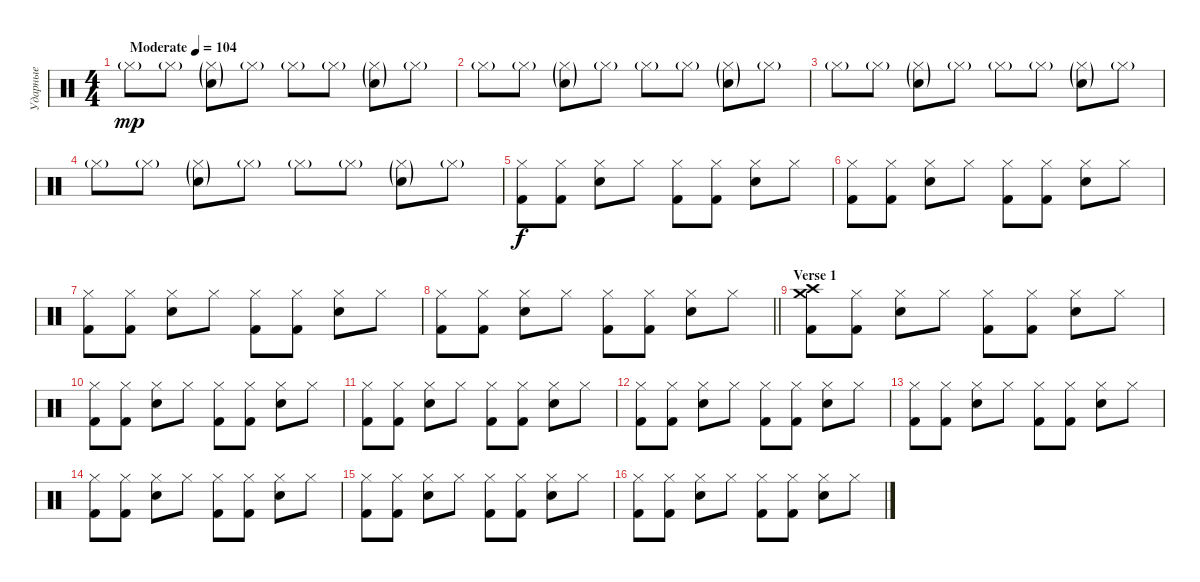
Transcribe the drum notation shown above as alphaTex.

\track ("Ударные" "Ударные") {instrument percussion}
\staff {score}
\articulation defaults
\ts (4 4)
\tempo (104 "Moderate")
\clef neutral
\ks c "Hi-Hat (closed)"{g}.8{dy mp} "Hi-Hat (closed)"{g}.8
("Hi-Hat (closed)"{g} "Electric Snare (hit)"{g}).8 "Hi-Hat (closed)"{g}.8 "Hi-Hat (closed)"{g}.8 "Hi-Hat (closed)"{g}.8 ("Hi-Hat (closed)"{g} "Electric Snare (hit)"{g}).8 "Hi-Hat (closed)"{g}.8 |
"Hi-Hat (closed)"{g}.8 "Hi-Hat (closed)"{g}.8 ("Hi-Hat (closed)"{g} "Electric Snare (hit)"{g}).8 "Hi-Hat (closed)"{g}.8 "Hi-Hat (closed)"{g}.8 "Hi-Hat (closed)"{g}.8 ("Hi-Hat (closed)"{g} "Electric Snare (hit)"{g}).8 "Hi-Hat (closed)"{g}.8 |
"Hi-Hat (closed)"{g}.8 "Hi-Hat (closed)"{g}.8 ("Hi-Hat (closed)"{g} "Electric Snare (hit)"{g}).8 "Hi-Hat (closed)"{g}.8 "Hi-Hat (closed)"{g}.8 "Hi-Hat (closed)"{g}.8 ("Hi-Hat (closed)"{g} "Electric Snare (hit)"{g}).8 "Hi-Hat (closed)"{g}.8 |
"Hi-Hat (closed)"{g}.8 "Hi-Hat (closed)"{g}.8 ("Hi-Hat (closed)"{g} "Electric Snare (hit)"{g}).8 "Hi-Hat (closed)"{g}.8 "Hi-Hat (closed)"{g}.8 "Hi-Hat (closed)"{g}.8 ("Hi-Hat (closed)"{g} "Electric Snare (hit)"{g}).8 "Hi-Hat (closed)"{g}.8 |
("Hi-Hat (closed)" "Kick (hit) 2").8{dy f} ("Hi-Hat (closed)" "Kick (hit) 2").8 ("Hi-Hat (closed)" "Electric Snare (hit)").8 "Hi-Hat (closed)".8 ("Hi-Hat (closed)" "Kick (hit) 2").8 ("Hi-Hat (closed)" "Kick (hit) 2").8 ("Hi-Hat (closed)" "Electric Snare (hit)").8 "Hi-Hat (closed)".8 |
("Hi-Hat (closed)" "Kick (hit) 2").8 ("Hi-Hat (closed)" "Kick (hit) 2").8 ("Hi-Hat (closed)" "Electric Snare (hit)").8 "Hi-Hat (closed)".8 ("Hi-Hat (closed)" "Kick (hit) 2").8 ("Hi-Hat (closed)" "Kick (hit) 2").8 ("Hi-Hat (closed)" "Electric Snare (hit)").8 "Hi-Hat (closed)".8 |
("Hi-Hat (closed)" "Kick (hit) 2").8 ("Hi-Hat (closed)" "Kick (hit) 2").8 ("Hi-Hat (closed)" "Electric Snare (hit)").8 "Hi-Hat (closed)".8 ("Hi-Hat (closed)" "Kick (hit) 2").8 ("Hi-Hat (closed)" "Kick (hit) 2").8 ("Hi-Hat (closed)" "Electric Snare (hit)").8 "Hi-Hat (closed)".8 |
\barLineRight lightlight
("Hi-Hat (closed)" "Kick (hit) 2").8 ("Hi-Hat (closed)" "Kick (hit) 2").8 ("Hi-Hat (closed)" "Electric Snare (hit)").8 "Hi-Hat (closed)".8 ("Hi-Hat (closed)" "Kick (hit) 2").8 ("Hi-Hat (closed)" "Kick (hit) 2").8 ("Hi-Hat (closed)" "Electric Snare (hit)").8 "Hi-Hat (closed)".8 |
\section ("" "Verse 1")
("Crash high (hit)" "Crash medium (hit)" "Kick (hit) 2").8 ("Hi-Hat (closed)" "Kick (hit) 2").8 ("Hi-Hat (closed)" "Electric Snare (hit)").8 "Hi-Hat (closed)".8 ("Hi-Hat (closed)" "Kick (hit) 2").8 ("Hi-Hat (closed)" "Kick (hit) 2").8 ("Hi-Hat (closed)" "Electric Snare (hit)").8 "Hi-Hat (closed)".8 |
("Hi-Hat (closed)" "Kick (hit) 2").8 ("Hi-Hat (closed)" "Kick (hit) 2").8 ("Hi-Hat (closed)" "Electric Snare (hit)").8 "Hi-Hat (closed)".8 ("Hi-Hat (closed)" "Kick (hit) 2").8 ("Hi-Hat (closed)" "Kick (hit) 2").8 ("Hi-Hat (closed)" "Electric Snare (hit)").8 "Hi-Hat (closed)".8 |
("Hi-Hat (closed)" "Kick (hit) 2").8 ("Hi-Hat (closed)" "Kick (hit) 2").8 ("Hi-Hat (closed)" "Electric Snare (hit)").8 "Hi-Hat (closed)".8 ("Hi-Hat (closed)" "Kick (hit) 2").8 ("Hi-Hat (closed)" "Kick (hit) 2").8 ("Hi-Hat (closed)" "Electric Snare (hit)").8 "Hi-Hat (closed)".8 |
("Hi-Hat (closed)" "Kick (hit) 2").8 ("Hi-Hat (closed)" "Kick (hit) 2").8 ("Hi-Hat (closed)" "Electric Snare (hit)").8 "Hi-Hat (closed)".8 ("Hi-Hat (closed)" "Kick (hit) 2").8 ("Hi-Hat (closed)" "Kick (hit) 2").8 ("Hi-Hat (closed)" "Electric Snare (hit)").8 "Hi-Hat (closed)".8 |
("Hi-Hat (closed)" "Kick (hit) 2").8 ("Hi-Hat (closed)" "Kick (hit) 2").8 ("Hi-Hat (closed)" "Electric Snare (hit)").8 "Hi-Hat (closed)".8 ("Hi-Hat (closed)" "Kick (hit) 2").8 ("Hi-Hat (closed)" "Kick (hit) 2").8 ("Hi-Hat (closed)" "Electric Snare (hit)").8 "Hi-Hat (closed)".8 |
("Hi-Hat (closed)" "Kick (hit) 2").8 ("Hi-Hat (closed)" "Kick (hit) 2").8 ("Hi-Hat (closed)" "Electric Snare (hit)").8 "Hi-Hat (closed)".8 ("Hi-Hat (closed)" "Kick (hit) 2").8 ("Hi-Hat (closed)" "Kick (hit) 2").8 ("Hi-Hat (closed)" "Electric Snare (hit)").8 "Hi-Hat (closed)".8 |
("Hi-Hat (closed)" "Kick (hit) 2").8 ("Hi-Hat (closed)" "Kick (hit) 2").8 ("Hi-Hat (closed)" "Electric Snare (hit)").8 "Hi-Hat (closed)".8 ("Hi-Hat (closed)" "Kick (hit) 2").8 ("Hi-Hat (closed)" "Kick (hit) 2").8 ("Hi-Hat (closed)" "Electric Snare (hit)").8 "Hi-Hat (closed)".8 |
("Hi-Hat (closed)" "Kick (hit) 2").8 ("Hi-Hat (closed)" "Kick (hit) 2").8 ("Hi-Hat (closed)" "Electric Snare (hit)").8 "Hi-Hat (closed)".8 ("Hi-Hat (closed)" "Kick (hit) 2").8 ("Hi-Hat (closed)" "Kick (hit) 2").8 ("Hi-Hat (closed)" "Electric Snare (hit)").8 "Hi-Hat (closed)".8
